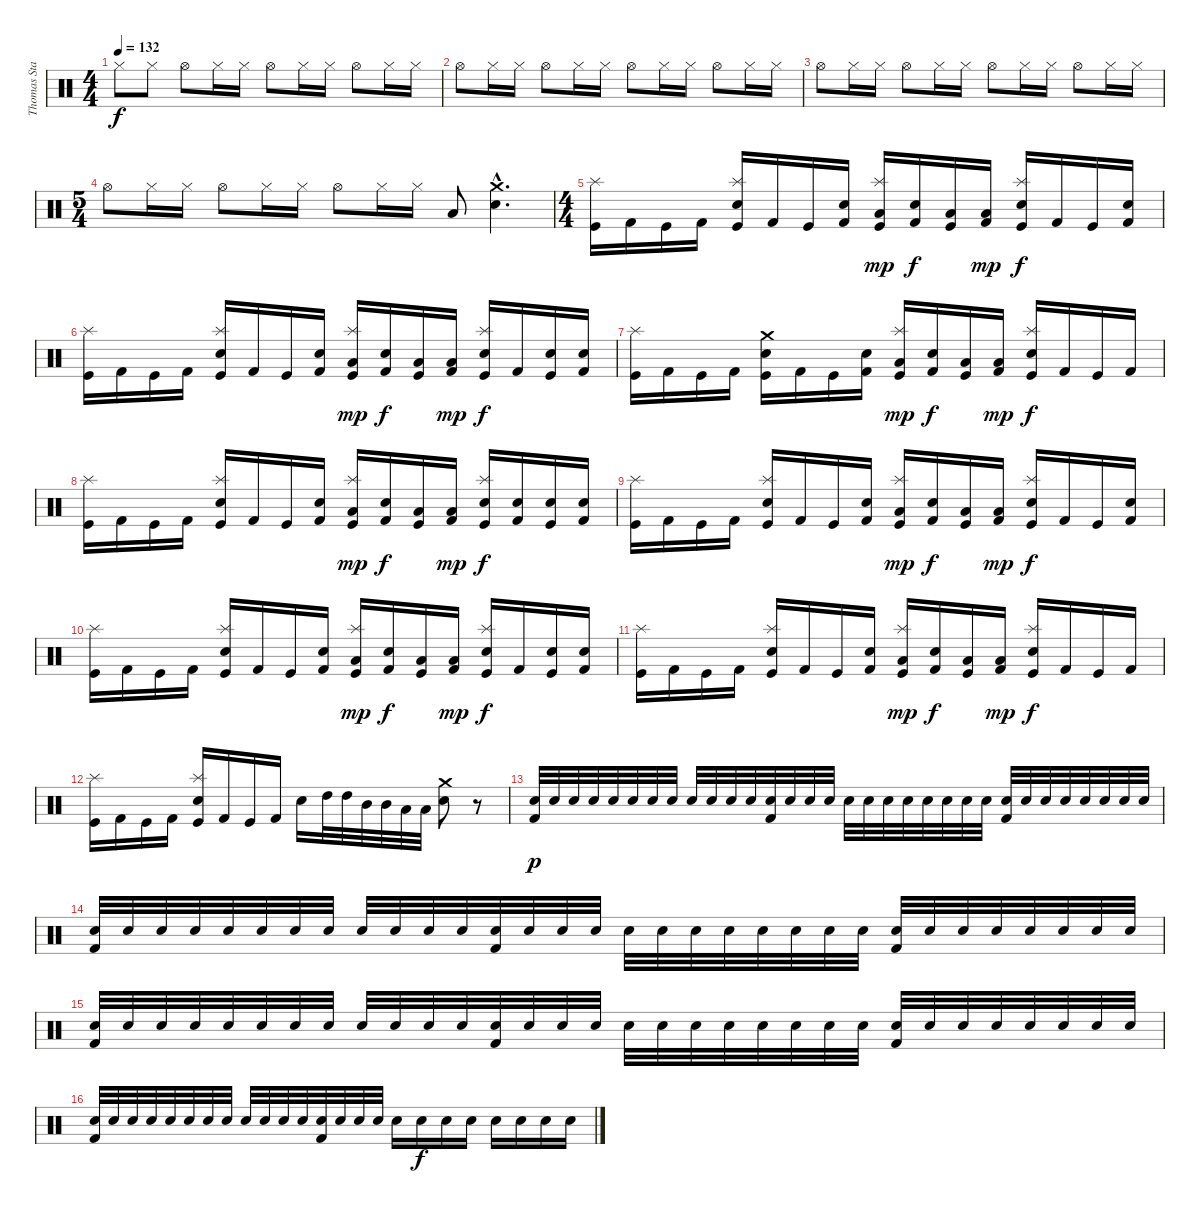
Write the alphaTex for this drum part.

\track ("Thomas Stauch" "Thomas Sta") {instrument percussion}
\staff {score}
\articulation defaults
\ts (4 4)
\tempo 132
\clef neutral
\ks c "Hi-Hat (closed)".8{dy f} "Hi-Hat (closed)".8 "Hi-Hat (open)".8 "Hi-Hat (closed)".16 "Hi-Hat (closed)".16 "Hi-Hat (open)".8 "Hi-Hat (closed)".16 "Hi-Hat (closed)".16 "Hi-Hat (open)".8 "Hi-Hat (closed)".16 "Hi-Hat (closed)".16
|
"Hi-Hat (open)".8 "Hi-Hat (closed)".16 "Hi-Hat (closed)".16 "Hi-Hat (open)".8 "Hi-Hat (closed)".16 "Hi-Hat (closed)".16 "Hi-Hat (open)".8 "Hi-Hat (closed)".16 "Hi-Hat (closed)".16 "Hi-Hat (open)".8 "Hi-Hat (closed)".16 "Hi-Hat (closed)".16 |
"Hi-Hat (open)".8 "Hi-Hat (closed)".16 "Hi-Hat (closed)".16 "Hi-Hat (open)".8 "Hi-Hat (closed)".16 "Hi-Hat (closed)".16 "Hi-Hat (open)".8 "Hi-Hat (closed)".16 "Hi-Hat (closed)".16 "Hi-Hat (open)".8 "Hi-Hat (closed)".16 "Hi-Hat (closed)".16 |
\ts (5 4)
"Hi-Hat (open)".8 "Hi-Hat (closed)".16 "Hi-Hat (closed)".16 "Hi-Hat (open)".8 "Hi-Hat (closed)".16 "Hi-Hat (closed)".16 "Hi-Hat (open)".8 "Hi-Hat (closed)".16 "Hi-Hat (closed)".16 "Low Tom (hit)".8 ("Crash medium (hit)"{hac} "Electric Snare (hit)"{hac}).4{d} |
\ts (4 4)
("Splash (hit)" "Kick (hit)").16 "Kick (hit) 2".16 "Kick (hit)".16 "Kick (hit) 2".16 ("Splash (hit)" "Electric Snare (hit)" "Kick (hit)").16 "Kick (hit) 2".16 "Kick (hit)".16 ("Electric Snare (hit)" "Kick (hit) 2").16 ("Splash (hit)" "Low Tom (hit)" "Kick (hit)").16{dy mp} ("Electric Snare (hit)" "Kick (hit) 2").16{dy f} ("Low Tom (hit)" "Kick (hit)").16 ("Low Tom (hit)" "Kick (hit) 2").16{dy mp} ("Splash (hit)" "Electric Snare (hit)" "Kick (hit)").16{dy f} "Kick (hit) 2".16 "Kick (hit)".16 ("Electric Snare (hit)" "Kick (hit) 2").16 |
("Splash (hit)" "Kick (hit)").16 "Kick (hit) 2".16 "Kick (hit)".16 "Kick (hit) 2".16 ("Splash (hit)" "Electric Snare (hit)" "Kick (hit)").16 "Kick (hit) 2".16 "Kick (hit)".16 ("Electric Snare (hit)" "Kick (hit) 2").16 ("Splash (hit)" "Low Tom (hit)" "Kick (hit)").16{dy mp} ("Electric Snare (hit)" "Kick (hit) 2").16{dy f} ("Low Tom (hit)" "Kick (hit)").16 ("Low Tom (hit)" "Kick (hit) 2").16{dy mp} ("Splash (hit)" "Electric Snare (hit)" "Kick (hit)").16{dy f} "Kick (hit) 2".16 ("Electric Snare (hit)" "Kick (hit)").16 ("Electric Snare (hit)" "Kick (hit) 2").16 |
("Splash (hit)" "Kick (hit)").16 "Kick (hit) 2".16 "Kick (hit)".16 "Kick (hit) 2".16 ("Crash medium (hit)" "Electric Snare (hit)" "Kick (hit)").16 "Kick (hit) 2".16 "Kick (hit)".16 ("Electric Snare (hit)" "Kick (hit) 2").16 ("Splash (hit)" "Low Tom (hit)" "Kick (hit)").16{dy mp} ("Electric Snare (hit)" "Kick (hit) 2").16{dy f} ("Low Tom (hit)" "Kick (hit)").16 ("Low Tom (hit)" "Kick (hit) 2").16{dy mp} ("Splash (hit)" "Electric Snare (hit)" "Kick (hit)").16{dy f} "Kick (hit) 2".16 "Kick (hit)".16 "Kick (hit) 2".16 |
("Splash (hit)" "Kick (hit)").16 "Kick (hit) 2".16 "Kick (hit)".16 "Kick (hit) 2".16 ("Splash (hit)" "Electric Snare (hit)" "Kick (hit)").16 "Kick (hit) 2".16 "Kick (hit)".16 ("Electric Snare (hit)" "Kick (hit) 2").16 ("Splash (hit)" "Low Tom (hit)" "Kick (hit)").16{dy mp} ("Electric Snare (hit)" "Kick (hit) 2").16{dy f} ("Low Tom (hit)" "Kick (hit)").16 ("Low Tom (hit)" "Kick (hit) 2").16{dy mp} ("Splash (hit)" "Electric Snare (hit)" "Kick (hit)").16{dy f} ("Electric Snare (hit)" "Kick (hit) 2").16 ("Electric Snare (hit)" "Kick (hit)").16 ("Electric Snare (hit)" "Kick (hit) 2").16 |
("Splash (hit)" "Kick (hit)").16 "Kick (hit) 2".16 "Kick (hit)".16 "Kick (hit) 2".16 ("Splash (hit)" "Electric Snare (hit)" "Kick (hit)").16 "Kick (hit) 2".16 "Kick (hit)".16 ("Electric Snare (hit)" "Kick (hit) 2").16 ("Splash (hit)" "Low Tom (hit)" "Kick (hit)").16{dy mp} ("Electric Snare (hit)" "Kick (hit) 2").16{dy f} ("Low Tom (hit)" "Kick (hit)").16 ("Low Tom (hit)" "Kick (hit) 2").16{dy mp} ("Splash (hit)" "Electric Snare (hit)" "Kick (hit)").16{dy f} "Kick (hit) 2".16 "Kick (hit)".16 ("Electric Snare (hit)" "Kick (hit) 2").16 |
("Splash (hit)" "Kick (hit)").16 "Kick (hit) 2".16 "Kick (hit)".16 "Kick (hit) 2".16 ("Splash (hit)" "Electric Snare (hit)" "Kick (hit)").16 "Kick (hit) 2".16 "Kick (hit)".16 ("Electric Snare (hit)" "Kick (hit) 2").16 ("Splash (hit)" "Low Tom (hit)" "Kick (hit)").16{dy mp} ("Electric Snare (hit)" "Kick (hit) 2").16{dy f} ("Low Tom (hit)" "Kick (hit)").16 ("Low Tom (hit)" "Kick (hit) 2").16{dy mp} ("Splash (hit)" "Electric Snare (hit)" "Kick (hit)").16{dy f} "Kick (hit) 2".16 ("Electric Snare (hit)" "Kick (hit)").16 ("Electric Snare (hit)" "Kick (hit) 2").16 |
("Splash (hit)" "Kick (hit)").16 "Kick (hit) 2".16 "Kick (hit)".16 "Kick (hit) 2".16 ("Splash (hit)" "Electric Snare (hit)" "Kick (hit)").16 "Kick (hit) 2".16 "Kick (hit)".16 ("Electric Snare (hit)" "Kick (hit) 2").16 ("Splash (hit)" "Low Tom (hit)" "Kick (hit)").16{dy mp} ("Electric Snare (hit)" "Kick (hit) 2").16{dy f} ("Low Tom (hit)" "Kick (hit)").16 ("Low Tom (hit)" "Kick (hit) 2").16{dy mp} ("Splash (hit)" "Electric Snare (hit)" "Kick (hit)").16{dy f} "Kick (hit) 2".16 "Kick (hit)".16 "Kick (hit) 2".16 |
("Splash (hit)" "Kick (hit)").16 "Kick (hit) 2".16 "Kick (hit)".16 "Kick (hit) 2".16 ("Splash (hit)" "Electric Snare (hit)" "Kick (hit)").16 "Kick (hit) 2".16 "Kick (hit)".16 "Kick (hit) 2".16 "Electric Snare (hit)".16 "High Tom (hit)".32 "High Tom (hit)".32 "Mid Tom (hit)".32 "Mid Tom (hit)".32 "Low Tom (hit)".32 "Low Tom (hit)".32 ("Crash medium (hit)" "Electric Snare (hit)").8 r.8 |
("Electric Snare (hit)" "Kick (hit) 2").32{dy p} "Electric Snare (hit)".32 "Electric Snare (hit)".32 "Electric Snare (hit)".32 "Electric Snare (hit)".32 "Electric Snare (hit)".32 "Electric Snare (hit)".32 "Electric Snare (hit)".32 "Electric Snare (hit)".32 "Electric Snare (hit)".32 "Electric Snare (hit)".32 "Electric Snare (hit)".32 ("Electric Snare (hit)" "Kick (hit) 2").32 "Electric Snare (hit)".32 "Electric Snare (hit)".32 "Electric Snare (hit)".32 "Electric Snare (hit)".32 "Electric Snare (hit)".32 "Electric Snare (hit)".32 "Electric Snare (hit)".32 "Electric Snare (hit)".32 "Electric Snare (hit)".32 "Electric Snare (hit)".32 "Electric Snare (hit)".32 ("Electric Snare (hit)" "Kick (hit) 2").32 "Electric Snare (hit)".32 "Electric Snare (hit)".32 "Electric Snare (hit)".32 "Electric Snare (hit)".32 "Electric Snare (hit)".32 "Electric Snare (hit)".32 "Electric Snare (hit)".32 |
("Electric Snare (hit)" "Kick (hit) 2").32 "Electric Snare (hit)".32 "Electric Snare (hit)".32 "Electric Snare (hit)".32 "Electric Snare (hit)".32 "Electric Snare (hit)".32 "Electric Snare (hit)".32 "Electric Snare (hit)".32 "Electric Snare (hit)".32 "Electric Snare (hit)".32 "Electric Snare (hit)".32 "Electric Snare (hit)".32 ("Electric Snare (hit)" "Kick (hit) 2").32 "Electric Snare (hit)".32 "Electric Snare (hit)".32 "Electric Snare (hit)".32 "Electric Snare (hit)".32 "Electric Snare (hit)".32 "Electric Snare (hit)".32 "Electric Snare (hit)".32 "Electric Snare (hit)".32 "Electric Snare (hit)".32 "Electric Snare (hit)".32 "Electric Snare (hit)".32 ("Electric Snare (hit)" "Kick (hit) 2").32 "Electric Snare (hit)".32 "Electric Snare (hit)".32 "Electric Snare (hit)".32 "Electric Snare (hit)".32 "Electric Snare (hit)".32 "Electric Snare (hit)".32 "Electric Snare (hit)".32 |
("Electric Snare (hit)" "Kick (hit) 2").32 "Electric Snare (hit)".32 "Electric Snare (hit)".32 "Electric Snare (hit)".32 "Electric Snare (hit)".32 "Electric Snare (hit)".32 "Electric Snare (hit)".32 "Electric Snare (hit)".32 "Electric Snare (hit)".32 "Electric Snare (hit)".32 "Electric Snare (hit)".32 "Electric Snare (hit)".32 ("Electric Snare (hit)" "Kick (hit) 2").32 "Electric Snare (hit)".32 "Electric Snare (hit)".32 "Electric Snare (hit)".32 "Electric Snare (hit)".32 "Electric Snare (hit)".32 "Electric Snare (hit)".32 "Electric Snare (hit)".32 "Electric Snare (hit)".32 "Electric Snare (hit)".32 "Electric Snare (hit)".32 "Electric Snare (hit)".32 ("Electric Snare (hit)" "Kick (hit) 2").32 "Electric Snare (hit)".32 "Electric Snare (hit)".32 "Electric Snare (hit)".32 "Electric Snare (hit)".32 "Electric Snare (hit)".32 "Electric Snare (hit)".32 "Electric Snare (hit)".32 |
("Electric Snare (hit)" "Kick (hit) 2").32 "Electric Snare (hit)".32 "Electric Snare (hit)".32 "Electric Snare (hit)".32 "Electric Snare (hit)".32 "Electric Snare (hit)".32 "Electric Snare (hit)".32 "Electric Snare (hit)".32 "Electric Snare (hit)".32 "Electric Snare (hit)".32 "Electric Snare (hit)".32 "Electric Snare (hit)".32 ("Electric Snare (hit)" "Kick (hit) 2").32 "Electric Snare (hit)".32 "Electric Snare (hit)".32 "Electric Snare (hit)".32 "Electric Snare (hit)".16 "Electric Snare (hit)".16{dy f} "Electric Snare (hit)".16 "Electric Snare (hit)".16 "Electric Snare (hit)".16 "Electric Snare (hit)".16 "Electric Snare (hit)".16 "Electric Snare (hit)".16
